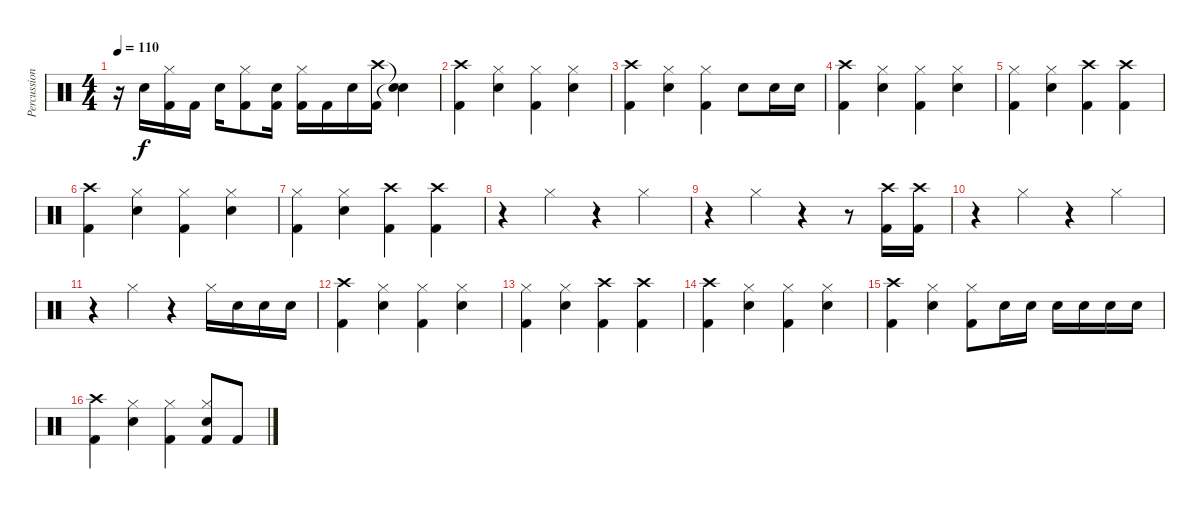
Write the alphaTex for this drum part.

\track ("Percussion" "Percussion") {instrument percussion}
\staff {score}
\articulation defaults
\ts (4 4)
\tempo 110
\clef neutral
\ks c
r.16{dy f} "Snare (hit) 2".16 ("Hi-Hat (closed)" "Kick (hit) 2").16 "Kick (hit) 2".16 "Snare (hit) 2".16 ("Hi-Hat (closed)" "Kick (hit) 2").8 ("Snare (hit) 2" "Kick (hit) 2").16 ("Hi-Hat (closed)" "Kick (hit) 2").16 "Kick (hit) 2".16 "Snare (hit) 2".16 ("Crash high (hit)" "Kick (hit) 2").16 ("Snare (hit)"{t} "Snare (hit)"{t}).4 |
("Crash high (hit)" "Kick (hit) 2").4 ("Hi-Hat (closed)" "Snare (hit) 2").4 ("Hi-Hat (closed)" "Kick (hit) 2").4 ("Hi-Hat (closed)" "Snare (hit) 2").4 |
("Crash high (hit)" "Kick (hit) 2").4 ("Hi-Hat (closed)" "Snare (hit) 2").4 ("Hi-Hat (closed)" "Kick (hit) 2").4 "Snare (hit) 2".8 "Snare (hit) 2".16 "Snare (hit) 2".16 |
("Crash high (hit)" "Kick (hit) 2").4 ("Hi-Hat (closed)" "Snare (hit) 2").4 ("Hi-Hat (closed)" "Kick (hit) 2").4 ("Hi-Hat (closed)" "Snare (hit) 2").4 |
("Hi-Hat (closed)" "Kick (hit) 2").4 ("Hi-Hat (closed)" "Snare (hit) 2").4 ("Crash high (hit)" "Kick (hit) 2").4 ("Crash high (hit)" "Kick (hit) 2").4 |
("Crash high (hit)" "Kick (hit) 2").4 ("Hi-Hat (closed)" "Snare (hit) 2").4 ("Hi-Hat (closed)" "Kick (hit) 2").4 ("Hi-Hat (closed)" "Snare (hit) 2").4 |
("Hi-Hat (closed)" "Kick (hit) 2").4 ("Hi-Hat (closed)" "Snare (hit) 2").4 ("Crash high (hit)" "Kick (hit) 2").4 ("Crash high (hit)" "Kick (hit) 2").4 |
r.4 "Hi-Hat (closed)".4 r.4 "Hi-Hat (closed)".4 |
r.4 "Hi-Hat (closed)".4 r.4 r.8 ("Crash high (hit)" "Kick (hit) 2").16 ("Crash high (hit)" "Kick (hit) 2").16 |
r.4 "Hi-Hat (closed)".4 r.4 "Hi-Hat (closed)".4 |
r.4 "Hi-Hat (closed)".4 r.4 "Hi-Hat (closed)".16 "Snare (hit) 2".16 "Snare (hit) 2".16 "Snare (hit) 2".16 |
("Crash high (hit)" "Kick (hit) 2").4 ("Hi-Hat (closed)" "Snare (hit) 2").4 ("Hi-Hat (closed)" "Kick (hit) 2").4 ("Hi-Hat (closed)" "Snare (hit) 2").4 |
("Hi-Hat (closed)" "Kick (hit) 2").4 ("Hi-Hat (closed)" "Snare (hit) 2").4 ("Crash high (hit)" "Kick (hit) 2").4 ("Crash high (hit)" "Kick (hit) 2").4 |
("Crash high (hit)" "Kick (hit) 2").4 ("Hi-Hat (closed)" "Snare (hit) 2").4 ("Hi-Hat (closed)" "Kick (hit) 2").4 ("Hi-Hat (closed)" "Snare (hit) 2").4 |
("Crash high (hit)" "Kick (hit) 2").4 ("Hi-Hat (closed)" "Snare (hit) 2").4 ("Hi-Hat (closed)" "Kick (hit) 2").8 "Snare (hit) 2".16 "Snare (hit) 2".16 "Snare (hit) 2".16 "Snare (hit) 2".16 "Snare (hit) 2".16 "Snare (hit) 2".16 |
("Crash high (hit)" "Kick (hit) 2").4 ("Hi-Hat (closed)" "Snare (hit) 2").4 ("Hi-Hat (closed)" "Kick (hit) 2").4 ("Hi-Hat (closed)" "Snare (hit) 2" "Kick (hit) 2").8 "Kick (hit) 2".8
